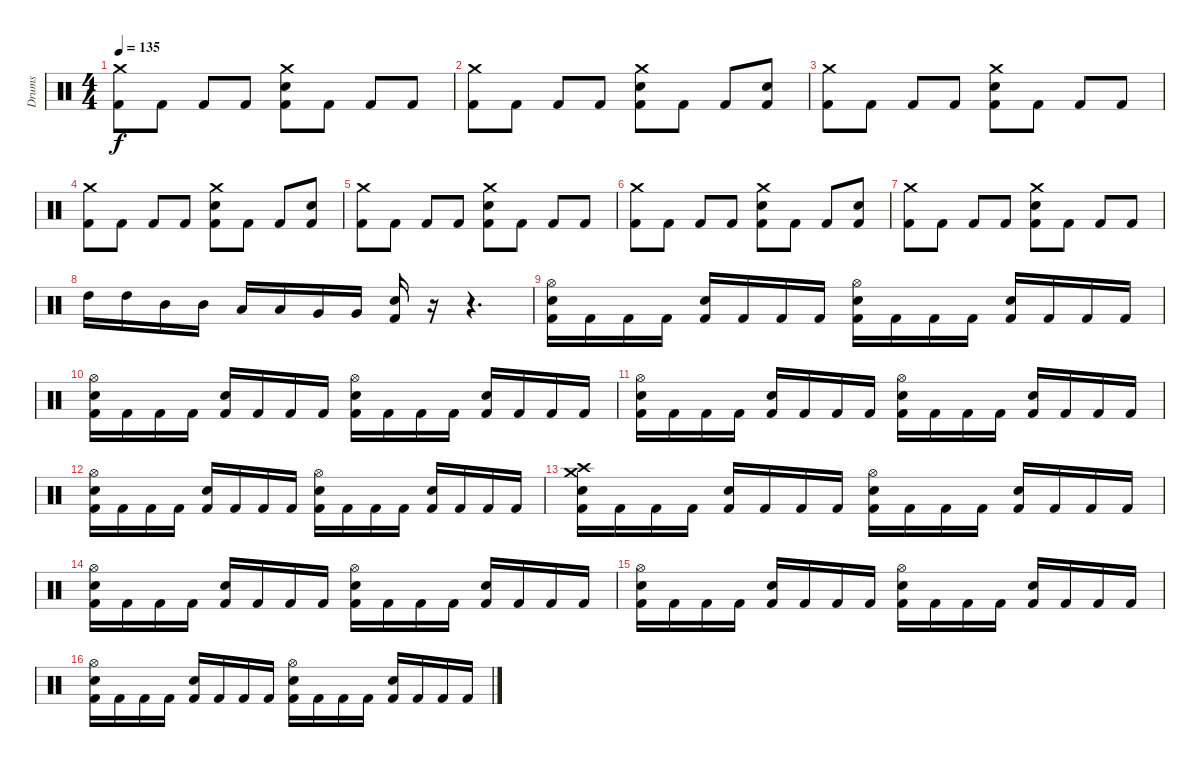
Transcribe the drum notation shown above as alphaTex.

\track ("Drums" "Drums") {instrument percussion}
\staff {score}
\articulation defaults
\ts (4 4)
\tempo 135
\clef neutral
\ks c
("Crash medium (hit)" "Kick (hit) 2").8{dy f} "Kick (hit) 2".8 "Kick (hit) 2".8 "Kick (hit) 2".8 ("Crash medium (hit)" "Kick (hit) 2" "Snare (hit) 2").8 "Kick (hit) 2".8 "Kick (hit) 2".8 "Kick (hit) 2".8 |
("Crash medium (hit)" "Kick (hit) 2").8 "Kick (hit) 2".8 "Kick (hit) 2".8 "Kick (hit) 2".8 ("Crash medium (hit)" "Kick (hit) 2" "Snare (hit) 2").8 "Kick (hit) 2".8 "Kick (hit) 2".8 ("Kick (hit) 2" "Snare (hit) 2").8 |
("Crash medium (hit)" "Kick (hit) 2").8 "Kick (hit) 2".8 "Kick (hit) 2".8 "Kick (hit) 2".8 ("Crash medium (hit)" "Kick (hit) 2" "Snare (hit) 2").8 "Kick (hit) 2".8 "Kick (hit) 2".8 "Kick (hit) 2".8 |
("Crash medium (hit)" "Kick (hit) 2").8 "Kick (hit) 2".8 "Kick (hit) 2".8 "Kick (hit) 2".8 ("Crash medium (hit)" "Kick (hit) 2" "Snare (hit) 2").8 "Kick (hit) 2".8 "Kick (hit) 2".8 ("Kick (hit) 2" "Snare (hit) 2").8 |
("Crash medium (hit)" "Kick (hit) 2").8 "Kick (hit) 2".8 "Kick (hit) 2".8 "Kick (hit) 2".8 ("Crash medium (hit)" "Kick (hit) 2" "Snare (hit) 2").8 "Kick (hit) 2".8 "Kick (hit) 2".8 "Kick (hit) 2".8 |
("Crash medium (hit)" "Kick (hit) 2").8 "Kick (hit) 2".8 "Kick (hit) 2".8 "Kick (hit) 2".8 ("Crash medium (hit)" "Kick (hit) 2" "Snare (hit) 2").8 "Kick (hit) 2".8 "Kick (hit) 2".8 ("Kick (hit) 2" "Snare (hit) 2").8 |
("Crash medium (hit)" "Kick (hit) 2").8 "Kick (hit) 2".8 "Kick (hit) 2".8 "Kick (hit) 2".8 ("Crash medium (hit)" "Kick (hit) 2" "Snare (hit) 2").8 "Kick (hit) 2".8 "Kick (hit) 2".8 "Kick (hit) 2".8 |
"High Tom (hit)".16 "High Tom (hit)".16 "Mid Tom (hit)".16 "Mid Tom (hit)".16 "Low Tom (hit)".16 "Low Tom (hit)".16 "Very Low Tom (hit)".16 "Very Low Tom (hit)".16 ("Snare (hit) 2" "Kick (hit) 2").16 r.16 r.4{d} |
("Snare (hit) 2" "Kick (hit) 2" "Hi-Hat (open)").16 "Kick (hit) 2".16 "Kick (hit) 2".16 "Kick (hit) 2".16 ("Snare (hit) 2" "Kick (hit) 2").16 "Kick (hit) 2".16 "Kick (hit) 2".16 "Kick (hit) 2".16 ("Snare (hit) 2" "Kick (hit) 2" "Hi-Hat (open)").16 "Kick (hit) 2".16 "Kick (hit) 2".16 "Kick (hit) 2".16 ("Snare (hit) 2" "Kick (hit) 2").16 "Kick (hit) 2".16 "Kick (hit) 2".16 "Kick (hit) 2".16 |
("Snare (hit) 2" "Kick (hit) 2" "Hi-Hat (open)").16 "Kick (hit) 2".16 "Kick (hit) 2".16 "Kick (hit) 2".16 ("Snare (hit) 2" "Kick (hit) 2").16 "Kick (hit) 2".16 "Kick (hit) 2".16 "Kick (hit) 2".16 ("Snare (hit) 2" "Kick (hit) 2" "Hi-Hat (open)").16 "Kick (hit) 2".16 "Kick (hit) 2".16 "Kick (hit) 2".16 ("Snare (hit) 2" "Kick (hit) 2").16 "Kick (hit) 2".16 "Kick (hit) 2".16 "Kick (hit) 2".16 |
("Snare (hit) 2" "Kick (hit) 2" "Hi-Hat (open)").16 "Kick (hit) 2".16 "Kick (hit) 2".16 "Kick (hit) 2".16 ("Snare (hit) 2" "Kick (hit) 2").16 "Kick (hit) 2".16 "Kick (hit) 2".16 "Kick (hit) 2".16 ("Snare (hit) 2" "Kick (hit) 2" "Hi-Hat (open)").16 "Kick (hit) 2".16 "Kick (hit) 2".16 "Kick (hit) 2".16 ("Snare (hit) 2" "Kick (hit) 2").16 "Kick (hit) 2".16 "Kick (hit) 2".16 "Kick (hit) 2".16 |
("Snare (hit) 2" "Kick (hit) 2" "Hi-Hat (open)").16 "Kick (hit) 2".16 "Kick (hit) 2".16 "Kick (hit) 2".16 ("Snare (hit) 2" "Kick (hit) 2").16 "Kick (hit) 2".16 "Kick (hit) 2".16 "Kick (hit) 2".16 ("Snare (hit) 2" "Kick (hit) 2" "Hi-Hat (open)").16 "Kick (hit) 2".16 "Kick (hit) 2".16 "Kick (hit) 2".16 ("Snare (hit) 2" "Kick (hit) 2").16 "Kick (hit) 2".16 "Kick (hit) 2".16 "Kick (hit) 2".16 |
("Snare (hit) 2" "Kick (hit) 2" "Crash medium (hit)" "Crash high (hit)").16 "Kick (hit) 2".16 "Kick (hit) 2".16 "Kick (hit) 2".16 ("Snare (hit) 2" "Kick (hit) 2").16 "Kick (hit) 2".16 "Kick (hit) 2".16 "Kick (hit) 2".16 ("Snare (hit) 2" "Kick (hit) 2" "Hi-Hat (open)").16 "Kick (hit) 2".16 "Kick (hit) 2".16 "Kick (hit) 2".16 ("Snare (hit) 2" "Kick (hit) 2").16 "Kick (hit) 2".16 "Kick (hit) 2".16 "Kick (hit) 2".16 |
("Snare (hit) 2" "Kick (hit) 2" "Hi-Hat (open)").16 "Kick (hit) 2".16 "Kick (hit) 2".16 "Kick (hit) 2".16 ("Snare (hit) 2" "Kick (hit) 2").16 "Kick (hit) 2".16 "Kick (hit) 2".16 "Kick (hit) 2".16 ("Snare (hit) 2" "Kick (hit) 2" "Hi-Hat (open)").16 "Kick (hit) 2".16 "Kick (hit) 2".16 "Kick (hit) 2".16 ("Snare (hit) 2" "Kick (hit) 2").16 "Kick (hit) 2".16 "Kick (hit) 2".16 "Kick (hit) 2".16 |
("Snare (hit) 2" "Kick (hit) 2" "Hi-Hat (open)").16 "Kick (hit) 2".16 "Kick (hit) 2".16 "Kick (hit) 2".16 ("Snare (hit) 2" "Kick (hit) 2").16 "Kick (hit) 2".16 "Kick (hit) 2".16 "Kick (hit) 2".16 ("Snare (hit) 2" "Kick (hit) 2" "Hi-Hat (open)").16 "Kick (hit) 2".16 "Kick (hit) 2".16 "Kick (hit) 2".16 ("Snare (hit) 2" "Kick (hit) 2").16 "Kick (hit) 2".16 "Kick (hit) 2".16 "Kick (hit) 2".16 |
("Snare (hit) 2" "Kick (hit) 2" "Hi-Hat (open)").16 "Kick (hit) 2".16 "Kick (hit) 2".16 "Kick (hit) 2".16 ("Snare (hit) 2" "Kick (hit) 2").16 "Kick (hit) 2".16 "Kick (hit) 2".16 "Kick (hit) 2".16 ("Snare (hit) 2" "Kick (hit) 2" "Hi-Hat (open)").16 "Kick (hit) 2".16 "Kick (hit) 2".16 "Kick (hit) 2".16 ("Snare (hit) 2" "Kick (hit) 2").16 "Kick (hit) 2".16 "Kick (hit) 2".16 "Kick (hit) 2".16
